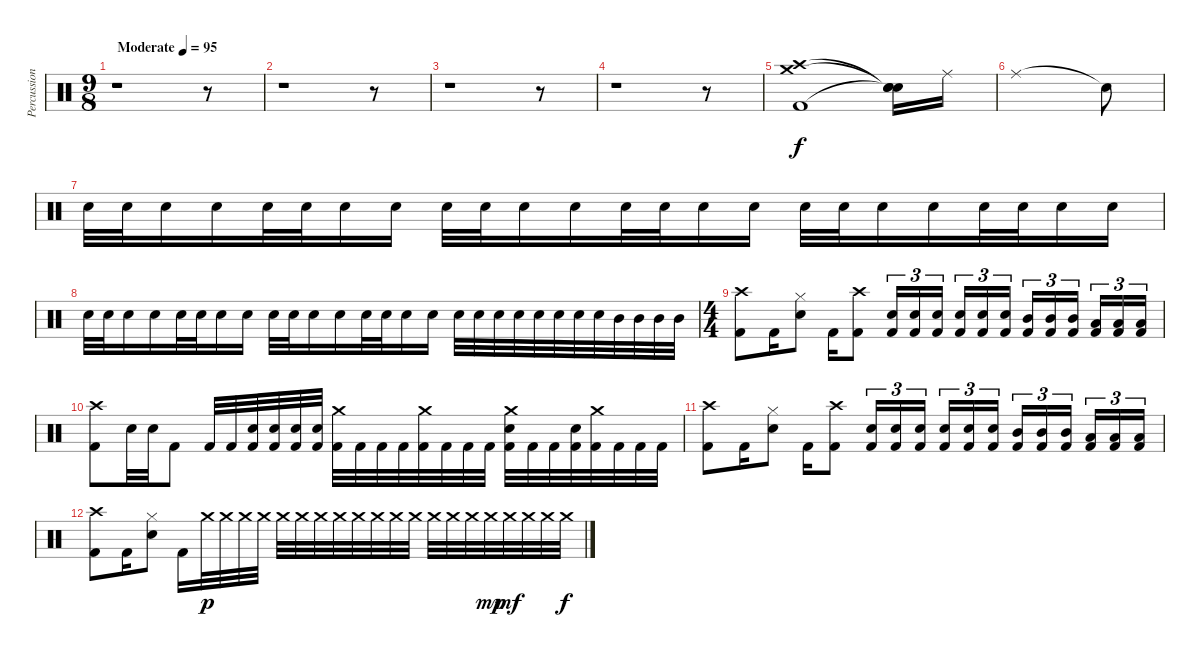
\track ("Percussion" "Percussion") {instrument percussion}
\staff {score}
\articulation defaults
\ts (9 8)
\tempo (95 "Moderate")
\clef neutral
\ks c
r.1{dy f} r.8 |
r.1 r.8 |
r.1 r.8 |
r.1 r.8 |
("Crash medium (hit)" "Crash high (hit)" "Kick (hit) 2").1 ("Snare (hit)"{t} "Snare (hit)"{t} "Snare (hit)"{t}).16 "Ride (middle)".16 |
"Ride (middle)".1 "Snare (hit)"{t}.8 |
"Snare (hit) 2".32 "Snare (hit) 2".32 "Snare (hit) 2".16 "Snare (hit) 2".16 "Snare (hit) 2".32 "Snare (hit) 2".32 "Snare (hit) 2".16 "Snare (hit) 2".16 "Snare (hit) 2".32 "Snare (hit) 2".32 "Snare (hit) 2".16 "Snare (hit) 2".16 "Snare (hit) 2".32 "Snare (hit) 2".32 "Snare (hit) 2".16 "Snare (hit) 2".16 "Snare (hit) 2".32 "Snare (hit) 2".32 "Snare (hit) 2".16 "Snare (hit) 2".16 "Snare (hit) 2".32 "Snare (hit) 2".32 "Snare (hit) 2".16 "Snare (hit) 2".16 |
"Snare (hit) 2".32 "Snare (hit) 2".32 "Snare (hit) 2".16 "Snare (hit) 2".16 "Snare (hit) 2".32 "Snare (hit) 2".32 "Snare (hit) 2".16 "Snare (hit) 2".16 "Snare (hit) 2".32 "Snare (hit) 2".32 "Snare (hit) 2".16 "Snare (hit) 2".16 "Snare (hit) 2".32 "Snare (hit) 2".32 "Snare (hit) 2".16 "Snare (hit) 2".16 "Snare (hit) 2".32 "Snare (hit) 2".32 "Snare (hit) 2".32 "Snare (hit) 2".32 "Snare (hit) 2".32 "Snare (hit) 2".32 "Snare (hit) 2".32 "Snare (hit) 2".32 "Mid Tom (hit)".32 "Mid Tom (hit)".32 "Mid Tom (hit)".32 "Mid Tom (hit)".32 |
\ts (4 4)
("Crash high (hit)" "Kick (hit) 2").8 "Kick (hit) 2".16 ("Hi-Hat (closed)" "Snare (hit) 2").8 "Kick (hit) 2".16 ("Crash high (hit)" "Kick (hit) 2").8 ("Snare (hit) 2" "Kick (hit) 2").16{tu (3 2)} ("Snare (hit) 2" "Kick (hit) 2").16{tu (3 2)} ("Snare (hit) 2" "Kick (hit) 2").16{tu (3 2) beam splitsecondary} ("Snare (hit) 2" "Kick (hit) 2").16{tu (3 2)} ("Snare (hit) 2" "Kick (hit) 2").16{tu (3 2)} ("Snare (hit) 2" "Kick (hit) 2").16{tu (3 2)} ("Mid Tom (hit)" "Kick (hit) 2").16{tu (3 2)} ("Mid Tom (hit)" "Kick (hit) 2").16{tu (3 2)} ("Mid Tom (hit)" "Kick (hit) 2").16{tu (3 2) beam splitsecondary} ("Low Tom (hit)" "Kick (hit) 2").16{tu (3 2)} ("Low Tom (hit)" "Kick (hit) 2").16{tu (3 2)} ("Low Tom (hit)" "Kick (hit) 2").16{tu (3 2)} |
("Crash high (hit)" "Kick (hit) 2").8 "Snare (hit) 2".32 "Snare (hit) 2".32 "Kick (hit) 2".8 "Kick (hit) 2".32 "Kick (hit) 2".32 ("Snare (hit) 2" "Kick (hit) 2").32 ("Snare (hit) 2" "Kick (hit) 2").32 ("Snare (hit) 2" "Kick (hit) 2").32 ("Snare (hit) 2" "Kick (hit) 2").32 ("Crash medium (hit)" "Kick (hit) 2").32 "Kick (hit) 2".32 "Kick (hit) 2".32 "Kick (hit) 2".32 ("Crash medium (hit)" "Kick (hit) 2").32 "Kick (hit) 2".32 "Kick (hit) 2".32 "Kick (hit) 2".32 ("Crash medium (hit)" "Snare (hit) 2" "Kick (hit) 2").32 "Kick (hit) 2".32 "Kick (hit) 2".32 ("Snare (hit) 2" "Kick (hit) 2").32 ("Crash medium (hit)" "Kick (hit) 2").32 "Kick (hit) 2".32 "Kick (hit) 2".32 "Kick (hit) 2".32 |
("Crash high (hit)" "Kick (hit) 2").8 "Kick (hit) 2".16 ("Hi-Hat (closed)" "Snare (hit) 2").8 "Kick (hit) 2".16 ("Crash high (hit)" "Kick (hit) 2").8 ("Snare (hit) 2" "Kick (hit) 2").16{tu (3 2)} ("Snare (hit) 2" "Kick (hit) 2").16{tu (3 2)} ("Snare (hit) 2" "Kick (hit) 2").16{tu (3 2) beam splitsecondary} ("Snare (hit) 2" "Kick (hit) 2").16{tu (3 2)} ("Snare (hit) 2" "Kick (hit) 2").16{tu (3 2)} ("Snare (hit) 2" "Kick (hit) 2").16{tu (3 2)} ("Mid Tom (hit)" "Kick (hit) 2").16{tu (3 2)} ("Mid Tom (hit)" "Kick (hit) 2").16{tu (3 2)} ("Mid Tom (hit)" "Kick (hit) 2").16{tu (3 2) beam splitsecondary} ("Low Tom (hit)" "Kick (hit) 2").16{tu (3 2)} ("Low Tom (hit)" "Kick (hit) 2").16{tu (3 2)} ("Low Tom (hit)" "Kick (hit) 2").16{tu (3 2)} |
("Crash high (hit)" "Kick (hit) 2").8 "Kick (hit) 2".16 ("Hi-Hat (closed)" "Snare (hit) 2").8 "Kick (hit) 2".16 "Crash medium (hit)".32{dy p} "Crash medium (hit)".32 "Crash medium (hit)".32 "Crash medium (hit)".32 "Crash medium (hit)".32 "Crash medium (hit)".32 "Crash medium (hit)".32 "Crash medium (hit)".32 "Crash medium (hit)".32 "Crash medium (hit)".32 "Crash medium (hit)".32 "Crash medium (hit)".32 "Crash medium (hit)".32 "Crash medium (hit)".32 "Crash medium (hit)".32 "Crash medium (hit)".32{dy mp} "Crash medium (hit)".32{dy mf} "Crash medium (hit)".32 "Crash medium (hit)".32 "Crash medium (hit)".32{dy f}
